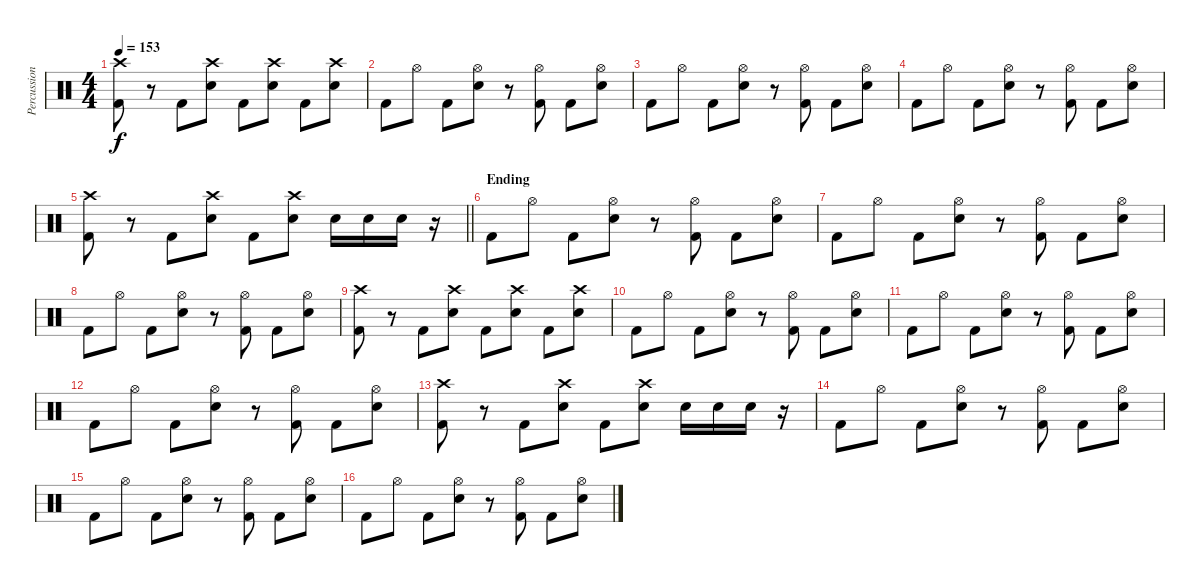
\track ("Percussion" "Percussion") {instrument percussion}
\staff {score}
\articulation defaults
\ts (4 4)
\tempo 153
\clef neutral
\ks c
("Crash high (hit)" "Kick (hit) 2").8{dy f} r.8 "Kick (hit) 2".8 ("Crash high (hit)" "Electric Snare (hit)").8 "Kick (hit) 2".8 ("Crash high (hit)" "Electric Snare (hit)").8 "Kick (hit) 2".8 ("Crash high (hit)" "Electric Snare (hit)").8 |
"Kick (hit) 2".8 "Hi-Hat (open)".8 "Kick (hit) 2".8 ("Hi-Hat (open)" "Electric Snare (hit)").8 r.8 ("Hi-Hat (open)" "Kick (hit) 2").8 "Kick (hit) 2".8 ("Hi-Hat (open)" "Electric Snare (hit)").8 |
"Kick (hit) 2".8 "Hi-Hat (open)".8 "Kick (hit) 2".8 ("Hi-Hat (open)" "Electric Snare (hit)").8 r.8 ("Hi-Hat (open)" "Kick (hit) 2").8 "Kick (hit) 2".8 ("Hi-Hat (open)" "Electric Snare (hit)").8 |
"Kick (hit) 2".8 "Hi-Hat (open)".8 "Kick (hit) 2".8 ("Hi-Hat (open)" "Electric Snare (hit)").8 r.8 ("Hi-Hat (open)" "Kick (hit) 2").8 "Kick (hit) 2".8 ("Hi-Hat (open)" "Electric Snare (hit)").8 |
\barLineRight lightlight
("Crash high (hit)" "Kick (hit) 2").8 r.8 "Kick (hit) 2".8 ("Crash high (hit)" "Electric Snare (hit)").8 "Kick (hit) 2".8 ("Crash high (hit)" "Electric Snare (hit)").8 "Electric Snare (hit)".16 "Electric Snare (hit)".16 "Electric Snare (hit)".16 r.16 |
\section ("" "Ending")
"Kick (hit) 2".8 "Hi-Hat (open)".8 "Kick (hit) 2".8 ("Hi-Hat (open)" "Electric Snare (hit)").8 r.8 ("Hi-Hat (open)" "Kick (hit) 2").8 "Kick (hit) 2".8 ("Hi-Hat (open)" "Electric Snare (hit)").8 |
"Kick (hit) 2".8 "Hi-Hat (open)".8 "Kick (hit) 2".8 ("Hi-Hat (open)" "Electric Snare (hit)").8 r.8 ("Hi-Hat (open)" "Kick (hit) 2").8 "Kick (hit) 2".8 ("Hi-Hat (open)" "Electric Snare (hit)").8 |
"Kick (hit) 2".8 "Hi-Hat (open)".8 "Kick (hit) 2".8 ("Hi-Hat (open)" "Electric Snare (hit)").8 r.8 ("Hi-Hat (open)" "Kick (hit) 2").8 "Kick (hit) 2".8 ("Hi-Hat (open)" "Electric Snare (hit)").8 |
("Crash high (hit)" "Kick (hit) 2").8 r.8 "Kick (hit) 2".8 ("Crash high (hit)" "Electric Snare (hit)").8 "Kick (hit) 2".8 ("Crash high (hit)" "Electric Snare (hit)").8 "Kick (hit) 2".8 ("Crash high (hit)" "Electric Snare (hit)").8 |
"Kick (hit) 2".8 "Hi-Hat (open)".8 "Kick (hit) 2".8 ("Hi-Hat (open)" "Electric Snare (hit)").8 r.8 ("Hi-Hat (open)" "Kick (hit) 2").8 "Kick (hit) 2".8 ("Hi-Hat (open)" "Electric Snare (hit)").8 |
"Kick (hit) 2".8 "Hi-Hat (open)".8 "Kick (hit) 2".8 ("Hi-Hat (open)" "Electric Snare (hit)").8 r.8 ("Hi-Hat (open)" "Kick (hit) 2").8 "Kick (hit) 2".8 ("Hi-Hat (open)" "Electric Snare (hit)").8 |
"Kick (hit) 2".8 "Hi-Hat (open)".8 "Kick (hit) 2".8 ("Hi-Hat (open)" "Electric Snare (hit)").8 r.8 ("Hi-Hat (open)" "Kick (hit) 2").8 "Kick (hit) 2".8 ("Hi-Hat (open)" "Electric Snare (hit)").8 |
("Crash high (hit)" "Kick (hit) 2").8 r.8 "Kick (hit) 2".8 ("Crash high (hit)" "Electric Snare (hit)").8 "Kick (hit) 2".8 ("Crash high (hit)" "Electric Snare (hit)").8 "Electric Snare (hit)".16 "Electric Snare (hit)".16 "Electric Snare (hit)".16 r.16 |
"Kick (hit) 2".8 "Hi-Hat (open)".8 "Kick (hit) 2".8 ("Hi-Hat (open)" "Electric Snare (hit)").8 r.8 ("Hi-Hat (open)" "Kick (hit) 2").8 "Kick (hit) 2".8 ("Hi-Hat (open)" "Electric Snare (hit)").8 |
"Kick (hit) 2".8 "Hi-Hat (open)".8 "Kick (hit) 2".8 ("Hi-Hat (open)" "Electric Snare (hit)").8 r.8 ("Hi-Hat (open)" "Kick (hit) 2").8 "Kick (hit) 2".8 ("Hi-Hat (open)" "Electric Snare (hit)").8 |
"Kick (hit) 2".8 "Hi-Hat (open)".8 "Kick (hit) 2".8 ("Hi-Hat (open)" "Electric Snare (hit)").8 r.8 ("Hi-Hat (open)" "Kick (hit) 2").8 "Kick (hit) 2".8 ("Hi-Hat (open)" "Electric Snare (hit)").8
